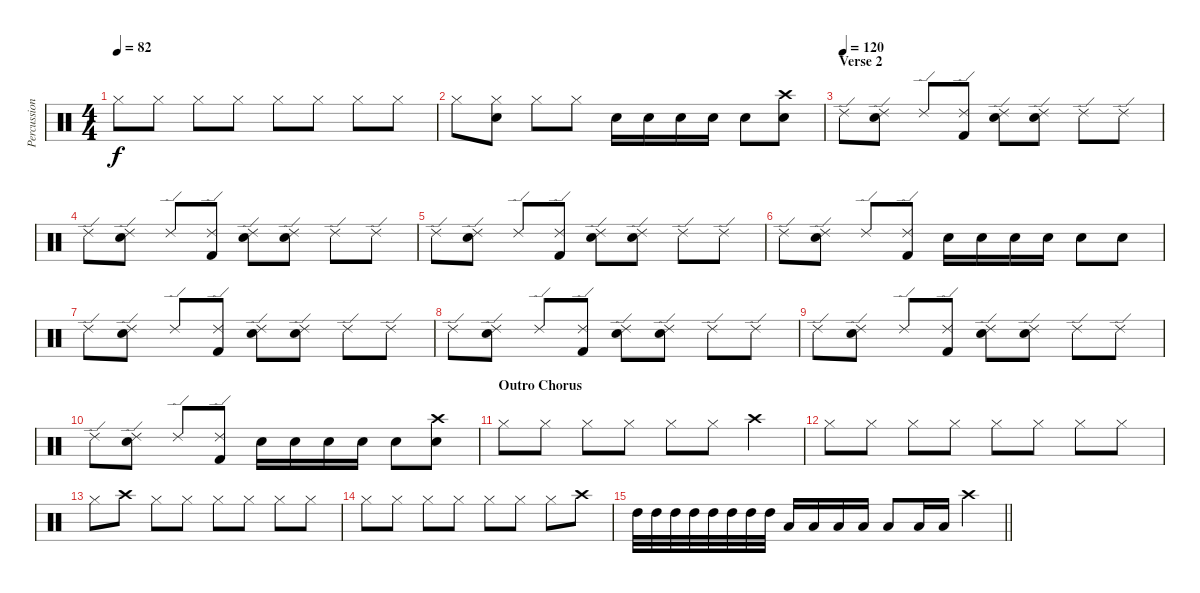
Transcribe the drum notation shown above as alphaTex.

\track ("Percussion" "Percussion") {instrument percussion}
\staff {score}
\articulation defaults
\ts (4 4)
\tempo 82
\clef neutral
\ks c "Hi-Hat (closed)".8{dy f} "Hi-Hat (closed)".8 "Hi-Hat (closed)".8 "Hi-Hat (closed)".8 "Hi-Hat (closed)".8 "Hi-Hat (closed)".8 "Hi-Hat (closed)".8 "Hi-Hat (closed)".8
|
"Hi-Hat (closed)".8 ("Hi-Hat (closed)" "Electric Snare (hit)").8 "Hi-Hat (closed)".8 "Hi-Hat (closed)".8 "Electric Snare (hit)".16 "Electric Snare (hit)".16 "Electric Snare (hit)".16 "Electric Snare (hit)".16 "Electric Snare (hit)".8 ("Crash high (hit)" "Electric Snare (hit)").8 |
\section ("" "Verse 2")
\tempo (120)
"Ride (edge) 2".8 ("Ride (edge) 2" "Electric Snare (hit)").8 "Ride (edge) 2".8 ("Ride (edge) 2" "Kick (hit) 2").8 ("Ride (edge) 2" "Electric Snare (hit)").8 ("Ride (edge) 2" "Electric Snare (hit)").8 "Ride (edge) 2".8 "Ride (edge) 2".8 |
"Ride (edge) 2".8 ("Ride (edge) 2" "Electric Snare (hit)").8 "Ride (edge) 2".8 ("Ride (edge) 2" "Kick (hit) 2").8 ("Ride (edge) 2" "Electric Snare (hit)").8 ("Ride (edge) 2" "Electric Snare (hit)").8 "Ride (edge) 2".8 "Ride (edge) 2".8 |
"Ride (edge) 2".8 ("Ride (edge) 2" "Electric Snare (hit)").8 "Ride (edge) 2".8 ("Ride (edge) 2" "Kick (hit) 2").8 ("Ride (edge) 2" "Electric Snare (hit)").8 ("Ride (edge) 2" "Electric Snare (hit)").8 "Ride (edge) 2".8 "Ride (edge) 2".8 |
"Ride (edge) 2".8 ("Ride (edge) 2" "Electric Snare (hit)").8 "Ride (edge) 2".8 ("Ride (edge) 2" "Kick (hit) 2").8 "Electric Snare (hit)".16 "Electric Snare (hit)".16 "Electric Snare (hit)".16 "Electric Snare (hit)".16 "Electric Snare (hit)".8 "Electric Snare (hit)".8 |
"Ride (edge) 2".8 ("Ride (edge) 2" "Electric Snare (hit)").8 "Ride (edge) 2".8 ("Ride (edge) 2" "Kick (hit) 2").8 ("Ride (edge) 2" "Electric Snare (hit)").8 ("Ride (edge) 2" "Electric Snare (hit)").8 "Ride (edge) 2".8 "Ride (edge) 2".8 |
"Ride (edge) 2".8 ("Ride (edge) 2" "Electric Snare (hit)").8 "Ride (edge) 2".8 ("Ride (edge) 2" "Kick (hit) 2").8 ("Ride (edge) 2" "Electric Snare (hit)").8 ("Ride (edge) 2" "Electric Snare (hit)").8 "Ride (edge) 2".8 "Ride (edge) 2".8 |
"Ride (edge) 2".8 ("Ride (edge) 2" "Electric Snare (hit)").8 "Ride (edge) 2".8 ("Ride (edge) 2" "Kick (hit) 2").8 ("Ride (edge) 2" "Electric Snare (hit)").8 ("Ride (edge) 2" "Electric Snare (hit)").8 "Ride (edge) 2".8 "Ride (edge) 2".8 |
"Ride (edge) 2".8 ("Ride (edge) 2" "Electric Snare (hit)").8 "Ride (edge) 2".8 ("Ride (edge) 2" "Kick (hit) 2").8 "Electric Snare (hit)".16 "Electric Snare (hit)".16 "Electric Snare (hit)".16 "Electric Snare (hit)".16 "Electric Snare (hit)".8 ("Crash high (hit)" "Electric Snare (hit)").8 |
\section ("" "Outro Chorus")
"Hi-Hat (closed)".8 "Hi-Hat (closed)".8 "Hi-Hat (closed)".8 "Hi-Hat (closed)".8 "Hi-Hat (closed)".8 "Hi-Hat (closed)".8 "Crash high (hit)".4 |
"Hi-Hat (closed)".8 "Hi-Hat (closed)".8 "Hi-Hat (closed)".8 "Hi-Hat (closed)".8 "Hi-Hat (closed)".8 "Hi-Hat (closed)".8 "Hi-Hat (closed)".8 "Hi-Hat (closed)".8 |
"Hi-Hat (closed)".8 "Crash high (hit)".8 "Hi-Hat (closed)".8 "Hi-Hat (closed)".8 "Hi-Hat (closed)".8 "Hi-Hat (closed)".8 "Hi-Hat (closed)".8 "Hi-Hat (closed)".8 |
"Hi-Hat (closed)".8 "Hi-Hat (closed)".8 "Hi-Hat (closed)".8 "Hi-Hat (closed)".8 "Hi-Hat (closed)".8 "Hi-Hat (closed)".8 "Hi-Hat (closed)".8 "Crash high (hit)".8 |
\barLineRight lightlight "High Tom (hit)".32 "High Tom (hit)".32 "High Tom (hit)".32 "High Tom (hit)".32 "High Tom (hit)".32 "High Tom (hit)".32 "High Tom (hit)".32 "High Tom (hit)".32 "Low Tom (hit)".16 "Low Tom (hit)".16 "Low Tom (hit)".16 "Low Tom (hit)".16 "Low Floor Tom (hit)".8 "Low Floor Tom (hit)".16 "Low Floor Tom (hit)".16 "Crash high (hit)".4
